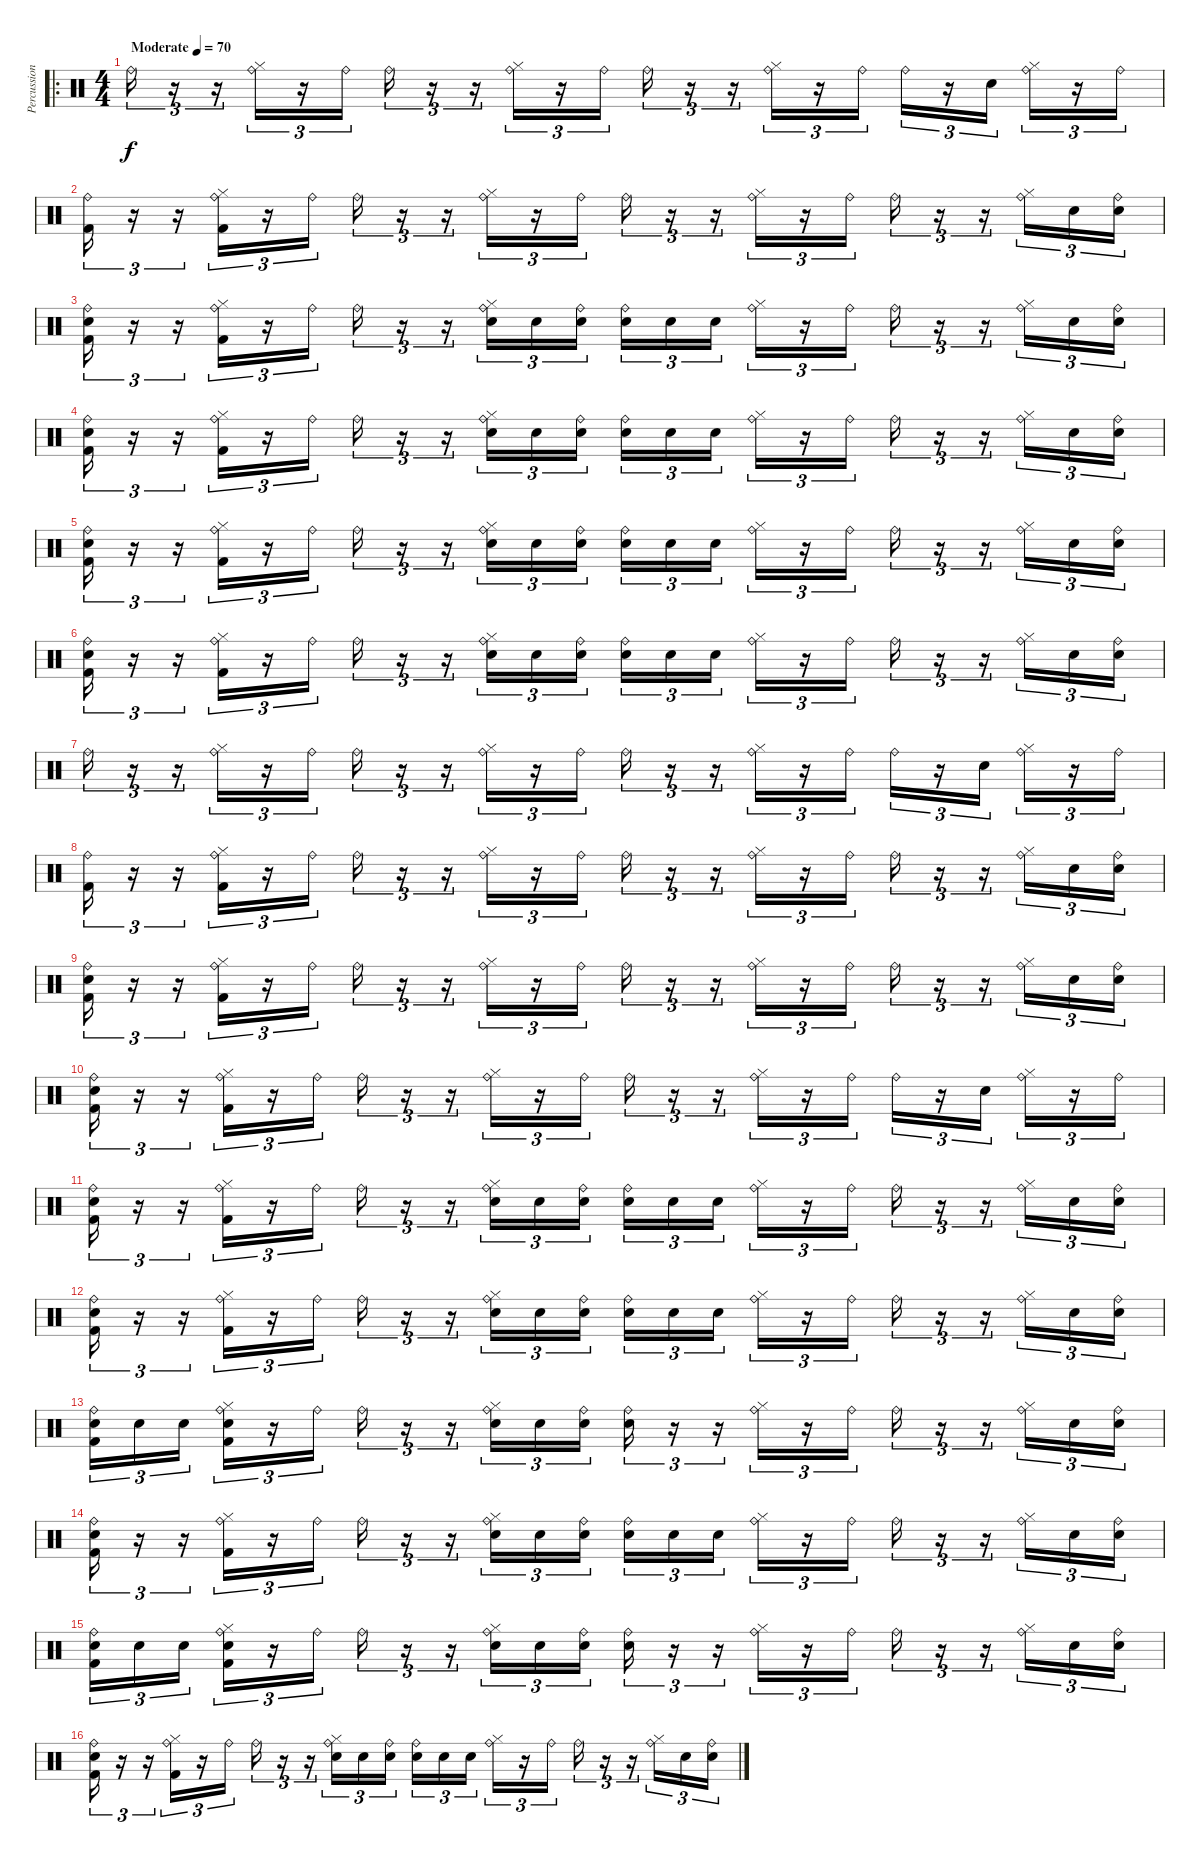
\track ("Percussion" "Percussion") {instrument percussion}
\staff {score}
\articulation defaults
\ro
\ts (4 4)
\tempo (70 "Moderate")
\clef neutral
\ks c "Ride (bell)".16{tu (3 2) dy f}
r.16{tu (3 2)} r.16{tu (3 2)} ("Hi-Hat (closed)" "Ride (bell)").16{tu (3 2)} r.16{tu (3 2)} "Ride (bell)".16{tu (3 2)} "Ride (bell)".16{tu (3 2)} r.16{tu (3 2)} r.16{tu (3 2)} ("Hi-Hat (closed)" "Ride (bell)").16{tu (3 2)} r.16{tu (3 2)} "Ride (bell)".16{tu (3 2)} "Ride (bell)".16{tu (3 2)} r.16{tu (3 2)} r.16{tu (3 2)} ("Hi-Hat (closed)" "Ride (bell)").16{tu (3 2)} r.16{tu (3 2)} "Ride (bell)".16{tu (3 2)} "Ride (bell)".16{tu (3 2)} r.16{tu (3 2)} "Snare (hit) 2".16{tu (3 2)} ("Hi-Hat (closed)" "Ride (bell)").16{tu (3 2)} r.16{tu (3 2)} "Ride (bell)".16{tu (3 2)} |
("Kick (hit) 2" "Ride (bell)").16{tu (3 2)} r.16{tu (3 2)} r.16{tu (3 2)} ("Hi-Hat (closed)" "Ride (bell)" "Kick (hit) 2").16{tu (3 2)} r.16{tu (3 2)} "Ride (bell)".16{tu (3 2)} "Ride (bell)".16{tu (3 2)} r.16{tu (3 2)} r.16{tu (3 2)} ("Hi-Hat (closed)" "Ride (bell)").16{tu (3 2)} r.16{tu (3 2)} "Ride (bell)".16{tu (3 2)} "Ride (bell)".16{tu (3 2)} r.16{tu (3 2)} r.16{tu (3 2)} ("Hi-Hat (closed)" "Ride (bell)").16{tu (3 2)} r.16{tu (3 2)} "Ride (bell)".16{tu (3 2)} "Ride (bell)".16{tu (3 2)} r.16{tu (3 2)} r.16{tu (3 2)} ("Hi-Hat (closed)" "Ride (bell)").16{tu (3 2)} "Snare (hit) 2".16{tu (3 2)} ("Snare (hit) 2" "Ride (bell)").16{tu (3 2)} |
("Kick (hit) 2" "Ride (bell)" "Snare (hit) 2").16{tu (3 2)} r.16{tu (3 2)} r.16{tu (3 2)} ("Hi-Hat (closed)" "Ride (bell)" "Kick (hit) 2").16{tu (3 2)} r.16{tu (3 2)} "Ride (bell)".16{tu (3 2)} "Ride (bell)".16{tu (3 2)} r.16{tu (3 2)} r.16{tu (3 2)} ("Hi-Hat (closed)" "Ride (bell)" "Snare (hit) 2").16{tu (3 2)} "Snare (hit) 2".16{tu (3 2)} ("Ride (bell)" "Snare (hit) 2").16{tu (3 2)} ("Ride (bell)" "Snare (hit) 2").16{tu (3 2)} "Snare (hit) 2".16{tu (3 2)} "Snare (hit) 2".16{tu (3 2) beam splitsecondary} ("Hi-Hat (closed)" "Ride (bell)").16{tu (3 2)} r.16{tu (3 2)} "Ride (bell)".16{tu (3 2)} "Ride (bell)".16{tu (3 2)} r.16{tu (3 2)} r.16{tu (3 2)} ("Hi-Hat (closed)" "Ride (bell)").16{tu (3 2)} "Snare (hit) 2".16{tu (3 2)} ("Snare (hit) 2" "Ride (bell)").16{tu (3 2)} |
("Kick (hit) 2" "Ride (bell)" "Snare (hit) 2").16{tu (3 2)} r.16{tu (3 2)} r.16{tu (3 2)} ("Hi-Hat (closed)" "Ride (bell)" "Kick (hit) 2").16{tu (3 2)} r.16{tu (3 2)} "Ride (bell)".16{tu (3 2)} "Ride (bell)".16{tu (3 2)} r.16{tu (3 2)} r.16{tu (3 2)} ("Hi-Hat (closed)" "Ride (bell)" "Snare (hit) 2").16{tu (3 2)} "Snare (hit) 2".16{tu (3 2)} ("Ride (bell)" "Snare (hit) 2").16{tu (3 2)} ("Ride (bell)" "Snare (hit) 2").16{tu (3 2)} "Snare (hit) 2".16{tu (3 2)} "Snare (hit) 2".16{tu (3 2) beam splitsecondary} ("Hi-Hat (closed)" "Ride (bell)").16{tu (3 2)} r.16{tu (3 2)} "Ride (bell)".16{tu (3 2)} "Ride (bell)".16{tu (3 2)} r.16{tu (3 2)} r.16{tu (3 2)} ("Hi-Hat (closed)" "Ride (bell)").16{tu (3 2)} "Snare (hit) 2".16{tu (3 2)} ("Snare (hit) 2" "Ride (bell)").16{tu (3 2)} |
("Kick (hit) 2" "Ride (bell)" "Snare (hit) 2").16{tu (3 2)} r.16{tu (3 2)} r.16{tu (3 2)} ("Hi-Hat (closed)" "Ride (bell)" "Kick (hit) 2").16{tu (3 2)} r.16{tu (3 2)} "Ride (bell)".16{tu (3 2)} "Ride (bell)".16{tu (3 2)} r.16{tu (3 2)} r.16{tu (3 2)} ("Hi-Hat (closed)" "Ride (bell)" "Snare (hit) 2").16{tu (3 2)} "Snare (hit) 2".16{tu (3 2)} ("Ride (bell)" "Snare (hit) 2").16{tu (3 2)} ("Ride (bell)" "Snare (hit) 2").16{tu (3 2)} "Snare (hit) 2".16{tu (3 2)} "Snare (hit) 2".16{tu (3 2) beam splitsecondary} ("Hi-Hat (closed)" "Ride (bell)").16{tu (3 2)} r.16{tu (3 2)} "Ride (bell)".16{tu (3 2)} "Ride (bell)".16{tu (3 2)} r.16{tu (3 2)} r.16{tu (3 2)} ("Hi-Hat (closed)" "Ride (bell)").16{tu (3 2)} "Snare (hit) 2".16{tu (3 2)} ("Snare (hit) 2" "Ride (bell)").16{tu (3 2)} |
("Kick (hit) 2" "Ride (bell)" "Snare (hit) 2").16{tu (3 2)} r.16{tu (3 2)} r.16{tu (3 2)} ("Hi-Hat (closed)" "Ride (bell)" "Kick (hit) 2").16{tu (3 2)} r.16{tu (3 2)} "Ride (bell)".16{tu (3 2)} "Ride (bell)".16{tu (3 2)} r.16{tu (3 2)} r.16{tu (3 2)} ("Hi-Hat (closed)" "Ride (bell)" "Snare (hit) 2").16{tu (3 2)} "Snare (hit) 2".16{tu (3 2)} ("Ride (bell)" "Snare (hit) 2").16{tu (3 2)} ("Ride (bell)" "Snare (hit) 2").16{tu (3 2)} "Snare (hit) 2".16{tu (3 2)} "Snare (hit) 2".16{tu (3 2) beam splitsecondary} ("Hi-Hat (closed)" "Ride (bell)").16{tu (3 2)} r.16{tu (3 2)} "Ride (bell)".16{tu (3 2)} "Ride (bell)".16{tu (3 2)} r.16{tu (3 2)} r.16{tu (3 2)} ("Hi-Hat (closed)" "Ride (bell)").16{tu (3 2)} "Snare (hit) 2".16{tu (3 2)} ("Snare (hit) 2" "Ride (bell)").16{tu (3 2)} |
"Ride (bell)".16{tu (3 2)} r.16{tu (3 2)} r.16{tu (3 2)} ("Hi-Hat (closed)" "Ride (bell)").16{tu (3 2)} r.16{tu (3 2)} "Ride (bell)".16{tu (3 2)} "Ride (bell)".16{tu (3 2)} r.16{tu (3 2)} r.16{tu (3 2)} ("Hi-Hat (closed)" "Ride (bell)").16{tu (3 2)} r.16{tu (3 2)} "Ride (bell)".16{tu (3 2)} "Ride (bell)".16{tu (3 2)} r.16{tu (3 2)} r.16{tu (3 2)} ("Hi-Hat (closed)" "Ride (bell)").16{tu (3 2)} r.16{tu (3 2)} "Ride (bell)".16{tu (3 2)} "Ride (bell)".16{tu (3 2)} r.16{tu (3 2)} "Snare (hit) 2".16{tu (3 2)} ("Hi-Hat (closed)" "Ride (bell)").16{tu (3 2)} r.16{tu (3 2)} "Ride (bell)".16{tu (3 2)} |
("Kick (hit) 2" "Ride (bell)").16{tu (3 2)} r.16{tu (3 2)} r.16{tu (3 2)} ("Hi-Hat (closed)" "Ride (bell)" "Kick (hit) 2").16{tu (3 2)} r.16{tu (3 2)} "Ride (bell)".16{tu (3 2)} "Ride (bell)".16{tu (3 2)} r.16{tu (3 2)} r.16{tu (3 2)} ("Hi-Hat (closed)" "Ride (bell)").16{tu (3 2)} r.16{tu (3 2)} "Ride (bell)".16{tu (3 2)} "Ride (bell)".16{tu (3 2)} r.16{tu (3 2)} r.16{tu (3 2)} ("Hi-Hat (closed)" "Ride (bell)").16{tu (3 2)} r.16{tu (3 2)} "Ride (bell)".16{tu (3 2)} "Ride (bell)".16{tu (3 2)} r.16{tu (3 2)} r.16{tu (3 2)} ("Hi-Hat (closed)" "Ride (bell)").16{tu (3 2)} "Snare (hit) 2".16{tu (3 2)} ("Snare (hit) 2" "Ride (bell)").16{tu (3 2)} |
("Kick (hit) 2" "Ride (bell)" "Snare (hit) 2").16{tu (3 2)} r.16{tu (3 2)} r.16{tu (3 2)} ("Hi-Hat (closed)" "Ride (bell)" "Kick (hit) 2").16{tu (3 2)} r.16{tu (3 2)} "Ride (bell)".16{tu (3 2)} "Ride (bell)".16{tu (3 2)} r.16{tu (3 2)} r.16{tu (3 2)} ("Hi-Hat (closed)" "Ride (bell)").16{tu (3 2)} r.16{tu (3 2)} "Ride (bell)".16{tu (3 2)} "Ride (bell)".16{tu (3 2)} r.16{tu (3 2)} r.16{tu (3 2)} ("Hi-Hat (closed)" "Ride (bell)").16{tu (3 2)} r.16{tu (3 2)} "Ride (bell)".16{tu (3 2)} "Ride (bell)".16{tu (3 2)} r.16{tu (3 2)} r.16{tu (3 2)} ("Hi-Hat (closed)" "Ride (bell)").16{tu (3 2)} "Snare (hit) 2".16{tu (3 2)} ("Snare (hit) 2" "Ride (bell)").16{tu (3 2)} |
("Kick (hit) 2" "Ride (bell)" "Snare (hit) 2").16{tu (3 2)} r.16{tu (3 2)} r.16{tu (3 2)} ("Hi-Hat (closed)" "Ride (bell)" "Kick (hit) 2").16{tu (3 2)} r.16{tu (3 2)} "Ride (bell)".16{tu (3 2)} "Ride (bell)".16{tu (3 2)} r.16{tu (3 2)} r.16{tu (3 2)} ("Hi-Hat (closed)" "Ride (bell)").16{tu (3 2)} r.16{tu (3 2)} "Ride (bell)".16{tu (3 2)} "Ride (bell)".16{tu (3 2)} r.16{tu (3 2)} r.16{tu (3 2)} ("Hi-Hat (closed)" "Ride (bell)").16{tu (3 2)} r.16{tu (3 2)} "Ride (bell)".16{tu (3 2)} "Ride (bell)".16{tu (3 2)} r.16{tu (3 2)} "Snare (hit) 2".16{tu (3 2)} ("Hi-Hat (closed)" "Ride (bell)").16{tu (3 2)} r.16{tu (3 2)} "Ride (bell)".16{tu (3 2)} |
("Kick (hit) 2" "Ride (bell)" "Snare (hit) 2").16{tu (3 2)} r.16{tu (3 2)} r.16{tu (3 2)} ("Hi-Hat (closed)" "Ride (bell)" "Kick (hit) 2").16{tu (3 2)} r.16{tu (3 2)} "Ride (bell)".16{tu (3 2)} "Ride (bell)".16{tu (3 2)} r.16{tu (3 2)} r.16{tu (3 2)} ("Hi-Hat (closed)" "Ride (bell)" "Snare (hit) 2").16{tu (3 2)} "Snare (hit) 2".16{tu (3 2)} ("Ride (bell)" "Snare (hit) 2").16{tu (3 2)} ("Ride (bell)" "Snare (hit) 2").16{tu (3 2)} "Snare (hit) 2".16{tu (3 2)} "Snare (hit) 2".16{tu (3 2) beam splitsecondary} ("Hi-Hat (closed)" "Ride (bell)").16{tu (3 2)} r.16{tu (3 2)} "Ride (bell)".16{tu (3 2)} "Ride (bell)".16{tu (3 2)} r.16{tu (3 2)} r.16{tu (3 2)} ("Hi-Hat (closed)" "Ride (bell)").16{tu (3 2)} "Snare (hit) 2".16{tu (3 2)} ("Snare (hit) 2" "Ride (bell)").16{tu (3 2)} |
("Kick (hit) 2" "Ride (bell)" "Snare (hit) 2").16{tu (3 2)} r.16{tu (3 2)} r.16{tu (3 2)} ("Hi-Hat (closed)" "Ride (bell)" "Kick (hit) 2").16{tu (3 2)} r.16{tu (3 2)} "Ride (bell)".16{tu (3 2)} "Ride (bell)".16{tu (3 2)} r.16{tu (3 2)} r.16{tu (3 2)} ("Hi-Hat (closed)" "Ride (bell)" "Snare (hit) 2").16{tu (3 2)} "Snare (hit) 2".16{tu (3 2)} ("Ride (bell)" "Snare (hit) 2").16{tu (3 2)} ("Ride (bell)" "Snare (hit) 2").16{tu (3 2)} "Snare (hit) 2".16{tu (3 2)} "Snare (hit) 2".16{tu (3 2) beam splitsecondary} ("Hi-Hat (closed)" "Ride (bell)").16{tu (3 2)} r.16{tu (3 2)} "Ride (bell)".16{tu (3 2)} "Ride (bell)".16{tu (3 2)} r.16{tu (3 2)} r.16{tu (3 2)} ("Hi-Hat (closed)" "Ride (bell)").16{tu (3 2)} "Snare (hit) 2".16{tu (3 2)} ("Snare (hit) 2" "Ride (bell)").16{tu (3 2)} |
("Kick (hit) 2" "Ride (bell)" "Snare (hit) 2").16{tu (3 2)} "Snare (hit) 2".16{tu (3 2)} "Snare (hit) 2".16{tu (3 2) beam splitsecondary} ("Hi-Hat (closed)" "Ride (bell)" "Snare (hit) 2" "Kick (hit) 2").16{tu (3 2)} r.16{tu (3 2)} "Ride (bell)".16{tu (3 2)} "Ride (bell)".16{tu (3 2)} r.16{tu (3 2)} r.16{tu (3 2)} ("Hi-Hat (closed)" "Ride (bell)" "Snare (hit) 2").16{tu (3 2)} "Snare (hit) 2".16{tu (3 2)} ("Ride (bell)" "Snare (hit) 2").16{tu (3 2)} ("Ride (bell)" "Snare (hit) 2").16{tu (3 2)} r.16{tu (3 2)} r.16{tu (3 2)} ("Hi-Hat (closed)" "Ride (bell)").16{tu (3 2)} r.16{tu (3 2)} "Ride (bell)".16{tu (3 2)} "Ride (bell)".16{tu (3 2)} r.16{tu (3 2)} r.16{tu (3 2)} ("Hi-Hat (closed)" "Ride (bell)").16{tu (3 2)} "Snare (hit) 2".16{tu (3 2)} ("Snare (hit) 2" "Ride (bell)").16{tu (3 2)} |
("Kick (hit) 2" "Ride (bell)" "Snare (hit) 2").16{tu (3 2)} r.16{tu (3 2)} r.16{tu (3 2)} ("Hi-Hat (closed)" "Ride (bell)" "Kick (hit) 2").16{tu (3 2)} r.16{tu (3 2)} "Ride (bell)".16{tu (3 2)} "Ride (bell)".16{tu (3 2)} r.16{tu (3 2)} r.16{tu (3 2)} ("Hi-Hat (closed)" "Ride (bell)" "Snare (hit) 2").16{tu (3 2)} "Snare (hit) 2".16{tu (3 2)} ("Ride (bell)" "Snare (hit) 2").16{tu (3 2)} ("Ride (bell)" "Snare (hit) 2").16{tu (3 2)} "Snare (hit) 2".16{tu (3 2)} "Snare (hit) 2".16{tu (3 2) beam splitsecondary} ("Hi-Hat (closed)" "Ride (bell)").16{tu (3 2)} r.16{tu (3 2)} "Ride (bell)".16{tu (3 2)} "Ride (bell)".16{tu (3 2)} r.16{tu (3 2)} r.16{tu (3 2)} ("Hi-Hat (closed)" "Ride (bell)").16{tu (3 2)} "Snare (hit) 2".16{tu (3 2)} ("Snare (hit) 2" "Ride (bell)").16{tu (3 2)} |
("Kick (hit) 2" "Ride (bell)" "Snare (hit) 2").16{tu (3 2)} "Snare (hit) 2".16{tu (3 2)} "Snare (hit) 2".16{tu (3 2) beam splitsecondary} ("Hi-Hat (closed)" "Ride (bell)" "Snare (hit) 2" "Kick (hit) 2").16{tu (3 2)} r.16{tu (3 2)} "Ride (bell)".16{tu (3 2)} "Ride (bell)".16{tu (3 2)} r.16{tu (3 2)} r.16{tu (3 2)} ("Hi-Hat (closed)" "Ride (bell)" "Snare (hit) 2").16{tu (3 2)} "Snare (hit) 2".16{tu (3 2)} ("Ride (bell)" "Snare (hit) 2").16{tu (3 2)} ("Ride (bell)" "Snare (hit) 2").16{tu (3 2)} r.16{tu (3 2)} r.16{tu (3 2)} ("Hi-Hat (closed)" "Ride (bell)").16{tu (3 2)} r.16{tu (3 2)} "Ride (bell)".16{tu (3 2)} "Ride (bell)".16{tu (3 2)} r.16{tu (3 2)} r.16{tu (3 2)} ("Hi-Hat (closed)" "Ride (bell)").16{tu (3 2)} "Snare (hit) 2".16{tu (3 2)} ("Snare (hit) 2" "Ride (bell)").16{tu (3 2)} |
("Kick (hit) 2" "Ride (bell)" "Snare (hit) 2").16{tu (3 2)} r.16{tu (3 2)} r.16{tu (3 2)} ("Hi-Hat (closed)" "Ride (bell)" "Kick (hit) 2").16{tu (3 2)} r.16{tu (3 2)} "Ride (bell)".16{tu (3 2)} "Ride (bell)".16{tu (3 2)} r.16{tu (3 2)} r.16{tu (3 2)} ("Hi-Hat (closed)" "Ride (bell)" "Snare (hit) 2").16{tu (3 2)} "Snare (hit) 2".16{tu (3 2)} ("Ride (bell)" "Snare (hit) 2").16{tu (3 2)} ("Ride (bell)" "Snare (hit) 2").16{tu (3 2)} "Snare (hit) 2".16{tu (3 2)} "Snare (hit) 2".16{tu (3 2) beam splitsecondary} ("Hi-Hat (closed)" "Ride (bell)").16{tu (3 2)} r.16{tu (3 2)} "Ride (bell)".16{tu (3 2)} "Ride (bell)".16{tu (3 2)} r.16{tu (3 2)} r.16{tu (3 2)} ("Hi-Hat (closed)" "Ride (bell)").16{tu (3 2)} "Snare (hit) 2".16{tu (3 2)} ("Snare (hit) 2" "Ride (bell)").16{tu (3 2)}
